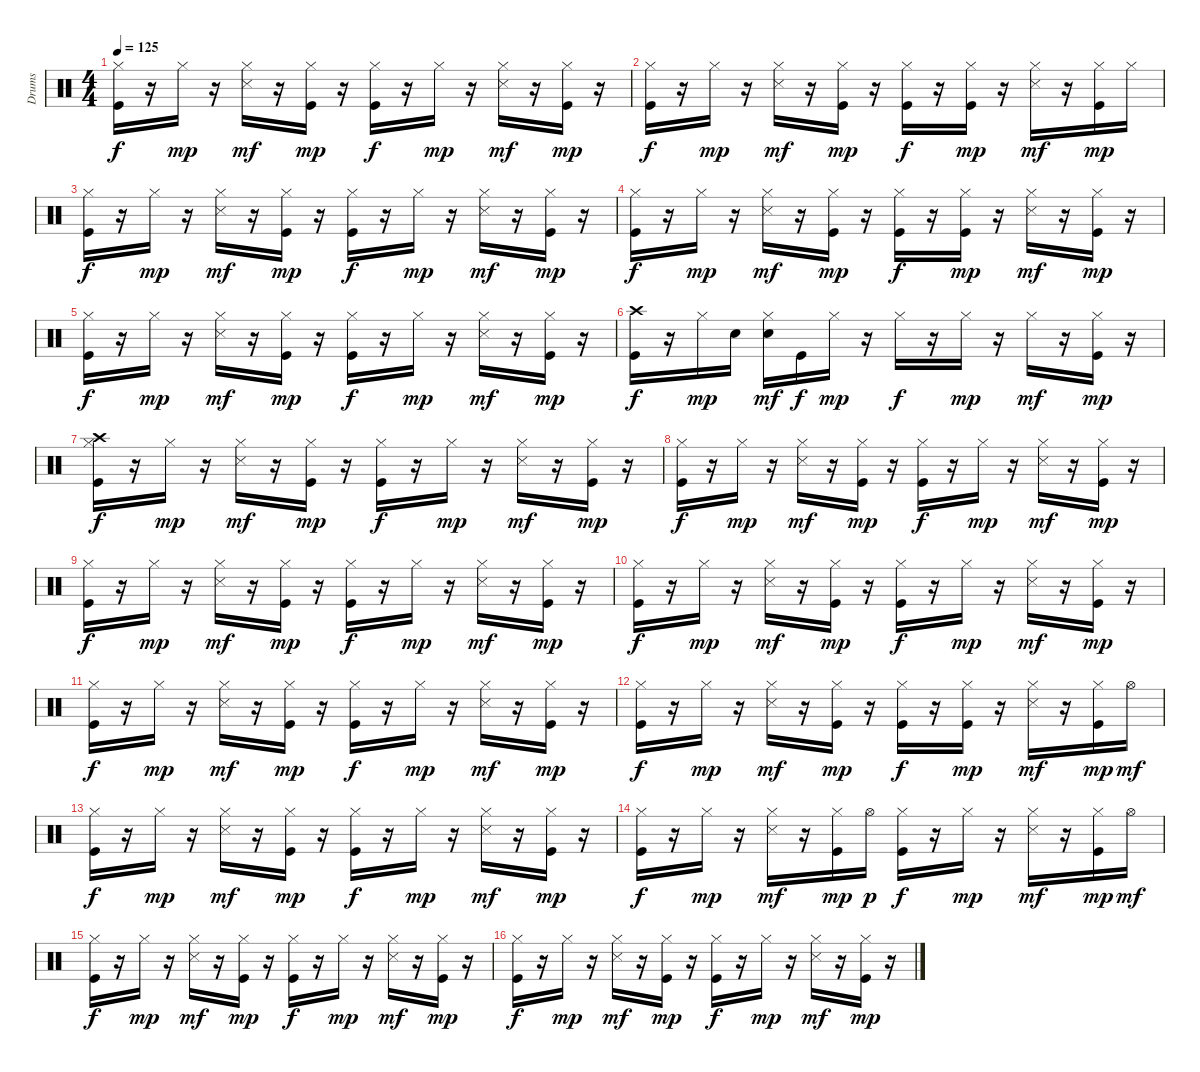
\track ("Drums   " "Drums   ") {solo instrument percussion}
\staff {score}
\articulation defaults
\ts (4 4)
\tempo 125
\clef neutral
\ks c
("Kick (hit)" "Hi-Hat (closed)").16{dy f} r.16 "Hi-Hat (closed)".16{dy mp} r.16 ("Hi-Hat (closed)" "Snare (side stick) 3").16{dy mf} r.16 ("Kick (hit)" "Hi-Hat (closed)").16{dy mp} r.16 ("Kick (hit)" "Hi-Hat (closed)").16{dy f} r.16 "Hi-Hat (closed)".16{dy mp} r.16 ("Hi-Hat (closed)" "Snare (side stick) 3").16{dy mf} r.16 ("Kick (hit)" "Hi-Hat (closed)").16{dy mp} r.16 |
("Kick (hit)" "Hi-Hat (closed)").16{dy f} r.16 "Hi-Hat (closed)".16{dy mp} r.16 ("Hi-Hat (closed)" "Snare (side stick) 3").16{dy mf} r.16 ("Kick (hit)" "Hi-Hat (closed)").16{dy mp} r.16 ("Kick (hit)" "Hi-Hat (closed)").16{dy f} r.16 ("Kick (hit)" "Hi-Hat (closed)").16{dy mp} r.16 ("Hi-Hat (closed)" "Snare (side stick) 3").16{dy mf} r.16 ("Kick (hit)" "Hi-Hat (closed)").16{dy mp} "Hi-Hat (closed)".16 |
("Kick (hit)" "Hi-Hat (closed)").16{dy f} r.16 "Hi-Hat (closed)".16{dy mp} r.16 ("Hi-Hat (closed)" "Snare (side stick) 3").16{dy mf} r.16 ("Kick (hit)" "Hi-Hat (closed)").16{dy mp} r.16 ("Kick (hit)" "Hi-Hat (closed)").16{dy f} r.16 "Hi-Hat (closed)".16{dy mp} r.16 ("Hi-Hat (closed)" "Snare (side stick) 3").16{dy mf} r.16 ("Kick (hit)" "Hi-Hat (closed)").16{dy mp} r.16 |
("Kick (hit)" "Hi-Hat (closed)").16{dy f} r.16 "Hi-Hat (closed)".16{dy mp} r.16 ("Hi-Hat (closed)" "Snare (side stick) 3").16{dy mf} r.16 ("Kick (hit)" "Hi-Hat (closed)").16{dy mp} r.16 ("Kick (hit)" "Hi-Hat (closed)").16{dy f} r.16 ("Kick (hit)" "Hi-Hat (closed)").16{dy mp} r.16 ("Hi-Hat (closed)" "Snare (side stick) 3").16{dy mf} r.16 ("Kick (hit)" "Hi-Hat (closed)").16{dy mp} r.16 |
("Kick (hit)" "Hi-Hat (closed)").16{dy f} r.16 "Hi-Hat (closed)".16{dy mp} r.16 ("Hi-Hat (closed)" "Snare (side stick) 3").16{dy mf} r.16 ("Kick (hit)" "Hi-Hat (closed)").16{dy mp} r.16 ("Kick (hit)" "Hi-Hat (closed)").16{dy f} r.16 "Hi-Hat (closed)".16{dy mp} r.16 ("Hi-Hat (closed)" "Snare (side stick) 3").16{dy mf} r.16 ("Kick (hit)" "Hi-Hat (closed)").16{dy mp} r.16 |
("Kick (hit)" "Crash high (hit)").16{dy f} r.16 "Hi-Hat (closed)".16{dy mp} "Snare (hit) 2".16 ("Snare (hit) 2" "Hi-Hat (closed)").16{dy mf} "Kick (hit)".16{dy f} "Hi-Hat (closed)".16{dy mp} r.16 "Hi-Hat (closed)".16{dy f} r.16 "Hi-Hat (closed)".16{dy mp} r.16 "Hi-Hat (closed)".16{dy mf} r.16 ("Kick (hit)" "Hi-Hat (closed)").16{dy mp} r.16 |
("Kick (hit)" "Hi-Hat (closed)" "Crash high (hit)").16{dy f} r.16 "Hi-Hat (closed)".16{dy mp} r.16 ("Hi-Hat (closed)" "Snare (side stick) 3").16{dy mf} r.16 ("Kick (hit)" "Hi-Hat (closed)").16{dy mp} r.16 ("Kick (hit)" "Hi-Hat (closed)").16{dy f} r.16 "Hi-Hat (closed)".16{dy mp} r.16 ("Hi-Hat (closed)" "Snare (side stick) 3").16{dy mf} r.16 ("Kick (hit)" "Hi-Hat (closed)").16{dy mp} r.16 |
("Kick (hit)" "Hi-Hat (closed)").16{dy f} r.16 "Hi-Hat (closed)".16{dy mp} r.16 ("Hi-Hat (closed)" "Snare (side stick) 3").16{dy mf} r.16 ("Kick (hit)" "Hi-Hat (closed)").16{dy mp} r.16 ("Kick (hit)" "Hi-Hat (closed)").16{dy f} r.16 "Hi-Hat (closed)".16{dy mp} r.16 ("Hi-Hat (closed)" "Snare (side stick) 3").16{dy mf} r.16 ("Kick (hit)" "Hi-Hat (closed)").16{dy mp} r.16 |
("Kick (hit)" "Hi-Hat (closed)").16{dy f} r.16 "Hi-Hat (closed)".16{dy mp} r.16 ("Hi-Hat (closed)" "Snare (side stick) 3").16{dy mf} r.16 ("Kick (hit)" "Hi-Hat (closed)").16{dy mp} r.16 ("Kick (hit)" "Hi-Hat (closed)").16{dy f} r.16 "Hi-Hat (closed)".16{dy mp} r.16 ("Hi-Hat (closed)" "Snare (side stick) 3").16{dy mf} r.16 ("Kick (hit)" "Hi-Hat (closed)").16{dy mp} r.16 |
("Kick (hit)" "Hi-Hat (closed)").16{dy f} r.16 "Hi-Hat (closed)".16{dy mp} r.16 ("Hi-Hat (closed)" "Snare (side stick) 3").16{dy mf} r.16 ("Kick (hit)" "Hi-Hat (closed)").16{dy mp} r.16 ("Kick (hit)" "Hi-Hat (closed)").16{dy f} r.16 "Hi-Hat (closed)".16{dy mp} r.16 ("Hi-Hat (closed)" "Snare (side stick) 3").16{dy mf} r.16 ("Kick (hit)" "Hi-Hat (closed)").16{dy mp} r.16 |
("Kick (hit)" "Hi-Hat (closed)").16{dy f} r.16 "Hi-Hat (closed)".16{dy mp} r.16 ("Hi-Hat (closed)" "Snare (side stick) 3").16{dy mf} r.16 ("Kick (hit)" "Hi-Hat (closed)").16{dy mp} r.16 ("Kick (hit)" "Hi-Hat (closed)").16{dy f} r.16 "Hi-Hat (closed)".16{dy mp} r.16 ("Hi-Hat (closed)" "Snare (side stick) 3").16{dy mf} r.16 ("Kick (hit)" "Hi-Hat (closed)").16{dy mp} r.16 |
("Kick (hit)" "Hi-Hat (closed)").16{dy f} r.16 "Hi-Hat (closed)".16{dy mp} r.16 ("Hi-Hat (closed)" "Snare (side stick) 3").16{dy mf} r.16 ("Kick (hit)" "Hi-Hat (closed)").16{dy mp} r.16 ("Kick (hit)" "Hi-Hat (closed)").16{dy f} r.16 ("Kick (hit)" "Hi-Hat (closed)").16{dy mp} r.16 ("Hi-Hat (closed)" "Snare (side stick) 3").16{dy mf} r.16 ("Kick (hit)" "Hi-Hat (closed)").16{dy mp} "Hi-Hat (open)".16{dy mf} |
("Kick (hit)" "Hi-Hat (closed)").16{dy f} r.16 "Hi-Hat (closed)".16{dy mp} r.16 ("Hi-Hat (closed)" "Snare (side stick) 3").16{dy mf} r.16 ("Kick (hit)" "Hi-Hat (closed)").16{dy mp} r.16 ("Kick (hit)" "Hi-Hat (closed)").16{dy f} r.16 "Hi-Hat (closed)".16{dy mp} r.16 ("Hi-Hat (closed)" "Snare (side stick) 3").16{dy mf} r.16 ("Kick (hit)" "Hi-Hat (closed)").16{dy mp} r.16 |
("Kick (hit)" "Hi-Hat (closed)").16{dy f} r.16 "Hi-Hat (closed)".16{dy mp} r.16 ("Hi-Hat (closed)" "Snare (side stick) 3").16{dy mf} r.16 ("Kick (hit)" "Hi-Hat (closed)").16{dy mp} "Hi-Hat (open)".16{dy p} ("Kick (hit)" "Hi-Hat (closed)").16{dy f} r.16 "Hi-Hat (closed)".16{dy mp} r.16 ("Hi-Hat (closed)" "Snare (side stick) 3").16{dy mf} r.16 ("Kick (hit)" "Hi-Hat (closed)").16{dy mp} "Hi-Hat (open)".16{dy mf} |
("Kick (hit)" "Hi-Hat (closed)").16{dy f} r.16 "Hi-Hat (closed)".16{dy mp} r.16 ("Hi-Hat (closed)" "Snare (side stick) 3").16{dy mf} r.16 ("Kick (hit)" "Hi-Hat (closed)").16{dy mp} r.16 ("Kick (hit)" "Hi-Hat (closed)").16{dy f} r.16 "Hi-Hat (closed)".16{dy mp} r.16 ("Hi-Hat (closed)" "Snare (side stick) 3").16{dy mf} r.16 ("Kick (hit)" "Hi-Hat (closed)").16{dy mp} r.16 |
("Kick (hit)" "Hi-Hat (closed)").16{dy f} r.16 "Hi-Hat (closed)".16{dy mp} r.16 ("Hi-Hat (closed)" "Snare (side stick) 3").16{dy mf} r.16 ("Kick (hit)" "Hi-Hat (closed)").16{dy mp} r.16 ("Kick (hit)" "Hi-Hat (closed)").16{dy f} r.16 "Hi-Hat (closed)".16{dy mp} r.16 ("Hi-Hat (closed)" "Snare (side stick) 3").16{dy mf} r.16 ("Kick (hit)" "Hi-Hat (closed)").16{dy mp} r.16
